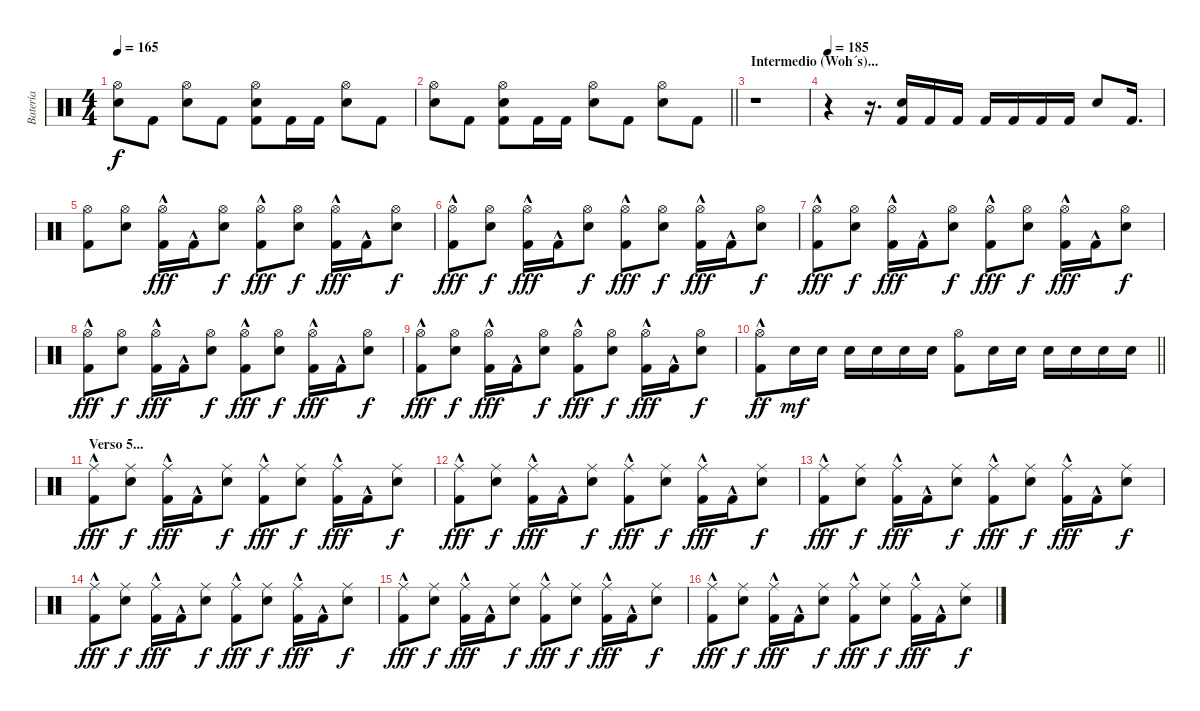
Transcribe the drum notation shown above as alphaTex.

\track ("Batería" "Batería") {instrument percussion}
\staff {score}
\articulation defaults
\ts (4 4)
\tempo 165
\clef neutral
\ks c
("Hi-Hat (open)" "Snare (hit) 2").8{dy f} "Kick (hit) 2".8 ("Hi-Hat (open)" "Snare (hit) 2").8 "Kick (hit) 2".8 ("Hi-Hat (open)" "Snare (hit) 2" "Kick (hit) 2").8 "Kick (hit) 2".16 "Kick (hit) 2".16 ("Hi-Hat (open)" "Snare (hit) 2").8 "Kick (hit) 2".8 |
\barLineRight lightlight
("Hi-Hat (open)" "Snare (hit) 2").8 "Kick (hit) 2".8 ("Hi-Hat (open)" "Snare (hit) 2" "Kick (hit) 2").8 "Kick (hit) 2".16 "Kick (hit) 2".16 ("Hi-Hat (open)" "Snare (hit) 2").8 "Kick (hit) 2".8 ("Hi-Hat (open)" "Snare (hit) 2").8 "Kick (hit) 2".8 |
\section ("" "Intermedio (Woh´s)...")
r.1 |
\tempo 185
r.4 r.16{d} ("Snare (hit) 2" "Kick (hit) 2").16 "Kick (hit) 2".16 "Kick (hit) 2".16 "Kick (hit) 2".16 "Kick (hit) 2".16 "Kick (hit) 2".16 "Kick (hit) 2".16 "Snare (hit) 2".8 "Kick (hit) 2".16{d} |
("Hi-Hat (open)" "Kick (hit) 2").8 ("Hi-Hat (open)" "Snare (hit) 2").8 ("Hi-Hat (open)" "Kick (hit) 2"{hac}).16{dy fff} "Kick (hit) 2"{hac}.16 ("Hi-Hat (open)" "Snare (hit) 2").8{dy f} ("Hi-Hat (open)" "Kick (hit) 2"{hac}).8{dy fff} ("Hi-Hat (open)" "Snare (hit) 2").8{dy f} ("Hi-Hat (open)" "Kick (hit) 2"{hac}).16{dy fff} "Kick (hit) 2"{hac}.16 ("Hi-Hat (open)" "Snare (hit) 2").8{dy f} |
("Hi-Hat (open)" "Kick (hit) 2"{hac}).8{dy fff} ("Hi-Hat (open)" "Snare (hit) 2").8{dy f} ("Hi-Hat (open)" "Kick (hit) 2"{hac}).16{dy fff} "Kick (hit) 2"{hac}.16 ("Hi-Hat (open)" "Snare (hit) 2").8{dy f} ("Hi-Hat (open)" "Kick (hit) 2"{hac}).8{dy fff} ("Hi-Hat (open)" "Snare (hit) 2").8{dy f} ("Hi-Hat (open)" "Kick (hit) 2"{hac}).16{dy fff} "Kick (hit) 2"{hac}.16 ("Hi-Hat (open)" "Snare (hit) 2").8{dy f} |
("Hi-Hat (open)" "Kick (hit) 2"{hac}).8{dy fff} ("Hi-Hat (open)" "Snare (hit) 2").8{dy f} ("Hi-Hat (open)" "Kick (hit) 2"{hac}).16{dy fff} "Kick (hit) 2"{hac}.16 ("Hi-Hat (open)" "Snare (hit) 2").8{dy f} ("Hi-Hat (open)" "Kick (hit) 2"{hac}).8{dy fff} ("Hi-Hat (open)" "Snare (hit) 2").8{dy f} ("Hi-Hat (open)" "Kick (hit) 2"{hac}).16{dy fff} "Kick (hit) 2"{hac}.16 ("Hi-Hat (open)" "Snare (hit) 2").8{dy f} |
("Hi-Hat (open)" "Kick (hit) 2"{hac}).8{dy fff} ("Hi-Hat (open)" "Snare (hit) 2").8{dy f} ("Hi-Hat (open)" "Kick (hit) 2"{hac}).16{dy fff} "Kick (hit) 2"{hac}.16 ("Hi-Hat (open)" "Snare (hit) 2").8{dy f} ("Hi-Hat (open)" "Kick (hit) 2"{hac}).8{dy fff} ("Hi-Hat (open)" "Snare (hit) 2").8{dy f} ("Hi-Hat (open)" "Kick (hit) 2"{hac}).16{dy fff} "Kick (hit) 2"{hac}.16 ("Hi-Hat (open)" "Snare (hit) 2").8{dy f} |
("Hi-Hat (open)" "Kick (hit) 2"{hac}).8{dy fff} ("Hi-Hat (open)" "Snare (hit) 2").8{dy f} ("Hi-Hat (open)" "Kick (hit) 2"{hac}).16{dy fff} "Kick (hit) 2"{hac}.16 ("Hi-Hat (open)" "Snare (hit) 2").8{dy f} ("Hi-Hat (open)" "Kick (hit) 2"{hac}).8{dy fff} ("Hi-Hat (open)" "Snare (hit) 2").8{dy f} ("Hi-Hat (open)" "Kick (hit) 2"{hac}).16{dy fff} "Kick (hit) 2"{hac}.16 ("Hi-Hat (open)" "Snare (hit) 2").8{dy f} |
\barLineRight lightlight
("Hi-Hat (open)" "Kick (hit) 2"{hac}).8{dy ff} "Snare (hit) 2".16{dy mf} "Snare (hit) 2".16 "Snare (hit) 2".16 "Snare (hit) 2".16 "Snare (hit) 2".16 "Snare (hit) 2".16 ("Hi-Hat (open)" "Kick (hit) 2").8 "Snare (hit) 2".16 "Snare (hit) 2".16 "Snare (hit) 2".16 "Snare (hit) 2".16 "Snare (hit) 2".16 "Snare (hit) 2".16 |
\section ("" "Verso 5...")
("Ride (middle)" "Kick (hit) 2"{hac}).8{dy fff} ("Ride (middle)" "Snare (hit) 2").8{dy f} ("Ride (middle)" "Kick (hit) 2"{hac}).16{dy fff} "Kick (hit) 2"{hac}.16 ("Ride (middle)" "Snare (hit) 2").8{dy f} ("Ride (middle)" "Kick (hit) 2"{hac}).8{dy fff} ("Ride (middle)" "Snare (hit) 2").8{dy f} ("Ride (middle)" "Kick (hit) 2"{hac}).16{dy fff} "Kick (hit) 2"{hac}.16 ("Ride (middle)" "Snare (hit) 2").8{dy f} |
("Ride (middle)" "Kick (hit) 2"{hac}).8{dy fff} ("Ride (middle)" "Snare (hit) 2").8{dy f} ("Ride (middle)" "Kick (hit) 2"{hac}).16{dy fff} "Kick (hit) 2"{hac}.16 ("Ride (middle)" "Snare (hit) 2").8{dy f} ("Ride (middle)" "Kick (hit) 2"{hac}).8{dy fff} ("Ride (middle)" "Snare (hit) 2").8{dy f} ("Ride (middle)" "Kick (hit) 2"{hac}).16{dy fff} "Kick (hit) 2"{hac}.16 ("Ride (middle)" "Snare (hit) 2").8{dy f} |
("Ride (middle)" "Kick (hit) 2"{hac}).8{dy fff} ("Ride (middle)" "Snare (hit) 2").8{dy f} ("Ride (middle)" "Kick (hit) 2"{hac}).16{dy fff} "Kick (hit) 2"{hac}.16 ("Ride (middle)" "Snare (hit) 2").8{dy f} ("Ride (middle)" "Kick (hit) 2"{hac}).8{dy fff} ("Ride (middle)" "Snare (hit) 2").8{dy f} ("Ride (middle)" "Kick (hit) 2"{hac}).16{dy fff} "Kick (hit) 2"{hac}.16 ("Ride (middle)" "Snare (hit) 2").8{dy f} |
("Ride (middle)" "Kick (hit) 2"{hac}).8{dy fff} ("Ride (middle)" "Snare (hit) 2").8{dy f} ("Ride (middle)" "Kick (hit) 2"{hac}).16{dy fff} "Kick (hit) 2"{hac}.16 ("Ride (middle)" "Snare (hit) 2").8{dy f} ("Ride (middle)" "Kick (hit) 2"{hac}).8{dy fff} ("Ride (middle)" "Snare (hit) 2").8{dy f} ("Ride (middle)" "Kick (hit) 2"{hac}).16{dy fff} "Kick (hit) 2"{hac}.16 ("Ride (middle)" "Snare (hit) 2").8{dy f} |
("Ride (middle)" "Kick (hit) 2"{hac}).8{dy fff} ("Ride (middle)" "Snare (hit) 2").8{dy f} ("Ride (middle)" "Kick (hit) 2"{hac}).16{dy fff} "Kick (hit) 2"{hac}.16 ("Ride (middle)" "Snare (hit) 2").8{dy f} ("Ride (middle)" "Kick (hit) 2"{hac}).8{dy fff} ("Ride (middle)" "Snare (hit) 2").8{dy f} ("Ride (middle)" "Kick (hit) 2"{hac}).16{dy fff} "Kick (hit) 2"{hac}.16 ("Ride (middle)" "Snare (hit) 2").8{dy f} |
("Ride (middle)" "Kick (hit) 2"{hac}).8{dy fff} ("Ride (middle)" "Snare (hit) 2").8{dy f} ("Ride (middle)" "Kick (hit) 2"{hac}).16{dy fff} "Kick (hit) 2"{hac}.16 ("Ride (middle)" "Snare (hit) 2").8{dy f} ("Ride (middle)" "Kick (hit) 2"{hac}).8{dy fff} ("Ride (middle)" "Snare (hit) 2").8{dy f} ("Ride (middle)" "Kick (hit) 2"{hac}).16{dy fff} "Kick (hit) 2"{hac}.16 ("Ride (middle)" "Snare (hit) 2").8{dy f}
